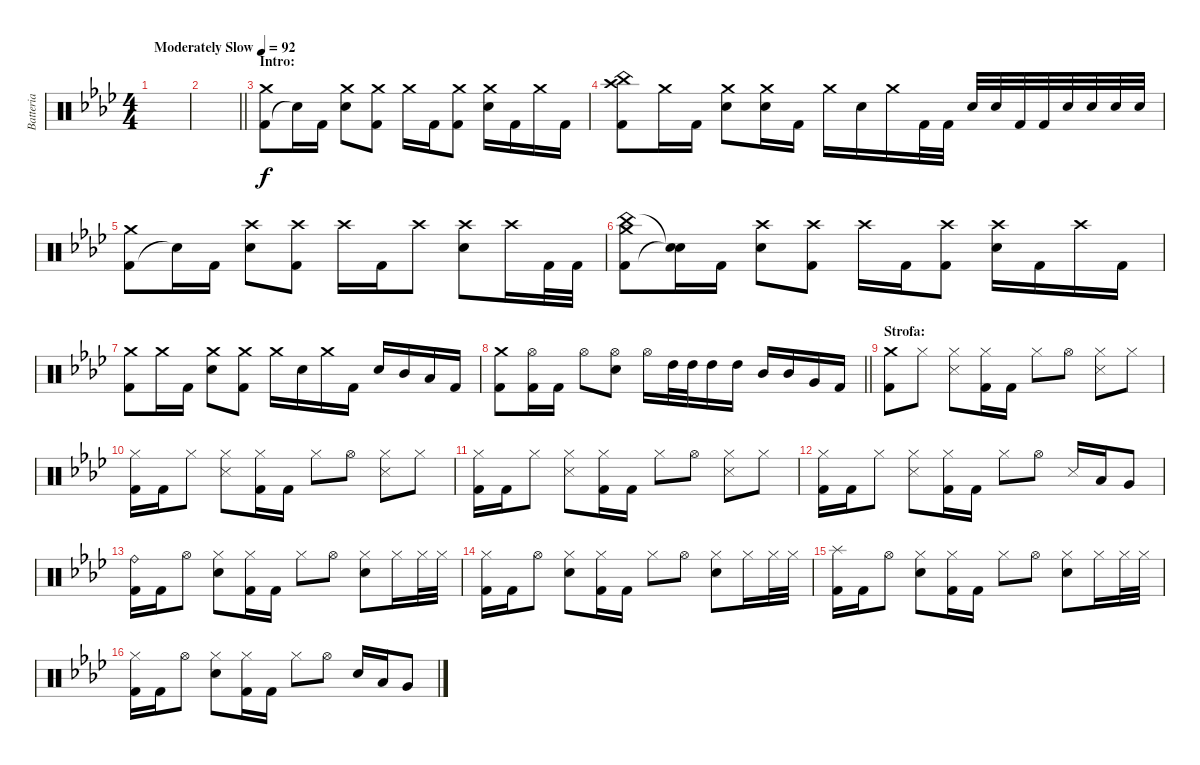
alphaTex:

\track ("Batteria" "Batteria") {instrument percussion}
\staff {score}
\articulation defaults
\ts (4 4)
\tempo (92 "Moderately Slow")
\clef neutral
\ks fminor
|
\barLineRight lightlight
|
\section ("" "Intro:")
("Kick (hit) 2" "Crash medium (hit)").8 "Snare (hit)"{t}.16 "Kick (hit) 2".16 ("Snare (hit) 2" "Crash medium (hit)").8 ("Kick (hit) 2" "Crash medium (hit)").8 "Crash medium (hit)".16 "Kick (hit) 2".16 ("Kick (hit) 2" "Crash medium (hit)").8 ("Snare (hit) 2" "Crash medium (hit)").16 "Kick (hit) 2".16 "Crash medium (hit)".16 "Kick (hit) 2".16 |
("Kick (hit) 2" "China (hit)" "Crash high (hit)").8 "Crash medium (hit)".16 "Kick (hit) 2".16 ("Snare (hit) 2" "Crash medium (hit)").8 ("Snare (hit) 2" "Crash medium (hit)").16 "Kick (hit) 2".16 "Crash medium (hit)".16 "Snare (hit) 2".16 "Crash medium (hit)".16 "Kick (hit) 2".32 "Kick (hit) 2".32 "Snare (hit) 2".32 "Snare (hit) 2".32 "Kick (hit) 2".32 "Kick (hit) 2".32 "Snare (hit) 2".32 "Snare (hit) 2".32 "Snare (hit) 2".32 "Snare (hit) 2".32 |
("Kick (hit) 2" "Crash medium (hit)").8 "Snare (hit)"{t}.16 "Kick (hit) 2".16 ("Snare (hit) 2" "Crash high (hit)").8 ("Kick (hit) 2" "Crash high (hit)").8 "Crash high (hit)".16 "Kick (hit) 2".16 "Crash high (hit)".8 ("Snare (hit) 2" "Crash high (hit)").8 "Crash high (hit)".16 "Kick (hit) 2".32 "Kick (hit) 2".32 |
("Kick (hit) 2" "China (hit)" "Crash medium (hit)").8 ("Snare (hit)"{t} "Snare (hit)"{t}).16 "Kick (hit) 2".16 ("Snare (hit) 2" "Crash high (hit)").8 ("Kick (hit) 2" "Crash high (hit)").8 "Crash high (hit)".16 "Kick (hit) 2".16 ("Kick (hit) 2" "Crash high (hit)").8 ("Snare (hit) 2" "Crash high (hit)").16 "Kick (hit) 2".16 "Crash high (hit)".16 "Kick (hit) 2".16 |
("Kick (hit) 2" "Crash medium (hit)").8 "Crash medium (hit)".16 "Kick (hit) 2".16 ("Snare (hit) 2" "Crash medium (hit)").8 ("Kick (hit) 2" "Crash medium (hit)").8 "Crash medium (hit)".16 "Snare (hit) 2".16 "Crash medium (hit)".16 "Kick (hit) 2".16 "Snare (hit) 2".16 "Mid Tom (hit)".16 "Low Tom (hit)".16 "Kick (hit) 2".16 |
\barLineRight lightlight
("Kick (hit) 2" "Crash medium (hit)").8 ("Kick (hit) 2" "Hi-Hat (open)").16 "Kick (hit) 2".16 "Hi-Hat (open)".8 ("Snare (hit) 2" "Hi-Hat (open)").8 "Hi-Hat (open)".16 "High Tom (hit)".32 "High Tom (hit)".32 "High Tom (hit)".16 "High Tom (hit)".16 "Mid Tom (hit)".16 "Mid Tom (hit)".16 "Very Low Tom (hit)".16 "Kick (hit) 2".16 |
\section ("" "Strofa:")
("Kick (hit) 2" "Crash medium (hit)").8 "Hi-Hat (closed)".8 ("Snare (side stick) 3" "Hi-Hat (closed)").8 ("Kick (hit) 2" "Hi-Hat (closed)").16 "Kick (hit) 2".16 "Hi-Hat (closed)".8 "Hi-Hat (open)".8 ("Snare (side stick) 3" "Hi-Hat (closed)").8 "Hi-Hat (closed)".8 |
("Kick (hit) 2" "Hi-Hat (closed)").16 "Kick (hit) 2".16 "Hi-Hat (closed)".8 ("Snare (side stick) 3" "Hi-Hat (closed)").8 ("Kick (hit) 2" "Hi-Hat (closed)").16 "Kick (hit) 2".16 "Hi-Hat (closed)".8 "Hi-Hat (open)".8 ("Snare (side stick) 3" "Hi-Hat (closed)").8 "Hi-Hat (closed)".8 |
("Kick (hit) 2" "Hi-Hat (closed)").16 "Kick (hit) 2".16 "Hi-Hat (closed)".8 ("Snare (side stick) 3" "Hi-Hat (closed)").8 ("Kick (hit) 2" "Hi-Hat (closed)").16 "Kick (hit) 2".16 "Hi-Hat (closed)".8 "Hi-Hat (open)".8 ("Snare (side stick) 3" "Hi-Hat (closed)").8 "Hi-Hat (closed)".8 |
("Kick (hit) 2" "Hi-Hat (closed)").16 "Kick (hit) 2".16 "Hi-Hat (closed)".8 ("Snare (side stick) 3" "Hi-Hat (closed)").8 ("Kick (hit) 2" "Hi-Hat (closed)").16 "Kick (hit) 2".16 "Hi-Hat (closed)".8 "Hi-Hat (open)".8 "Snare (side stick) 3".16 "Low Tom (hit)".16 "Very Low Tom (hit)".8 |
("Kick (hit) 2" "Ride (bell)").16 "Kick (hit) 2".16 "Hi-Hat (open)".8 ("Electric Snare (hit)" "Hi-Hat (closed)").8 ("Kick (hit) 2" "Hi-Hat (closed)").16 "Kick (hit) 2".16 "Hi-Hat (closed)".8 "Hi-Hat (open)".8 ("Electric Snare (hit)" "Hi-Hat (closed)").8 "Hi-Hat (closed)".16 "Hi-Hat (closed)".32 "Hi-Hat (closed)".32 |
("Kick (hit) 2" "Hi-Hat (closed)").16 "Kick (hit) 2".16 "Hi-Hat (open)".8 ("Electric Snare (hit)" "Hi-Hat (closed)").8 ("Kick (hit) 2" "Hi-Hat (closed)").16 "Kick (hit) 2".16 "Hi-Hat (closed)".8 "Hi-Hat (open)".8 ("Electric Snare (hit)" "Hi-Hat (closed)").8 "Hi-Hat (closed)".16 "Hi-Hat (closed)".32 "Hi-Hat (closed)".32 |
("Kick (hit) 2" "Splash (hit)").16 "Kick (hit) 2".16 "Hi-Hat (open)".8 ("Electric Snare (hit)" "Hi-Hat (closed)").8 ("Kick (hit) 2" "Hi-Hat (closed)").16 "Kick (hit) 2".16 "Hi-Hat (closed)".8 "Hi-Hat (open)".8 ("Electric Snare (hit)" "Hi-Hat (closed)").8 "Hi-Hat (closed)".16 "Hi-Hat (closed)".32 "Hi-Hat (closed)".32 |
("Kick (hit) 2" "Hi-Hat (closed)").16 "Kick (hit) 2".16 "Hi-Hat (open)".8 ("Electric Snare (hit)" "Hi-Hat (closed)").8 ("Kick (hit) 2" "Hi-Hat (closed)").16 "Kick (hit) 2".16 "Hi-Hat (closed)".8 "Hi-Hat (open)".8 "Electric Snare (hit)".16 "Low Tom (hit)".16 "Very Low Tom (hit)".8
